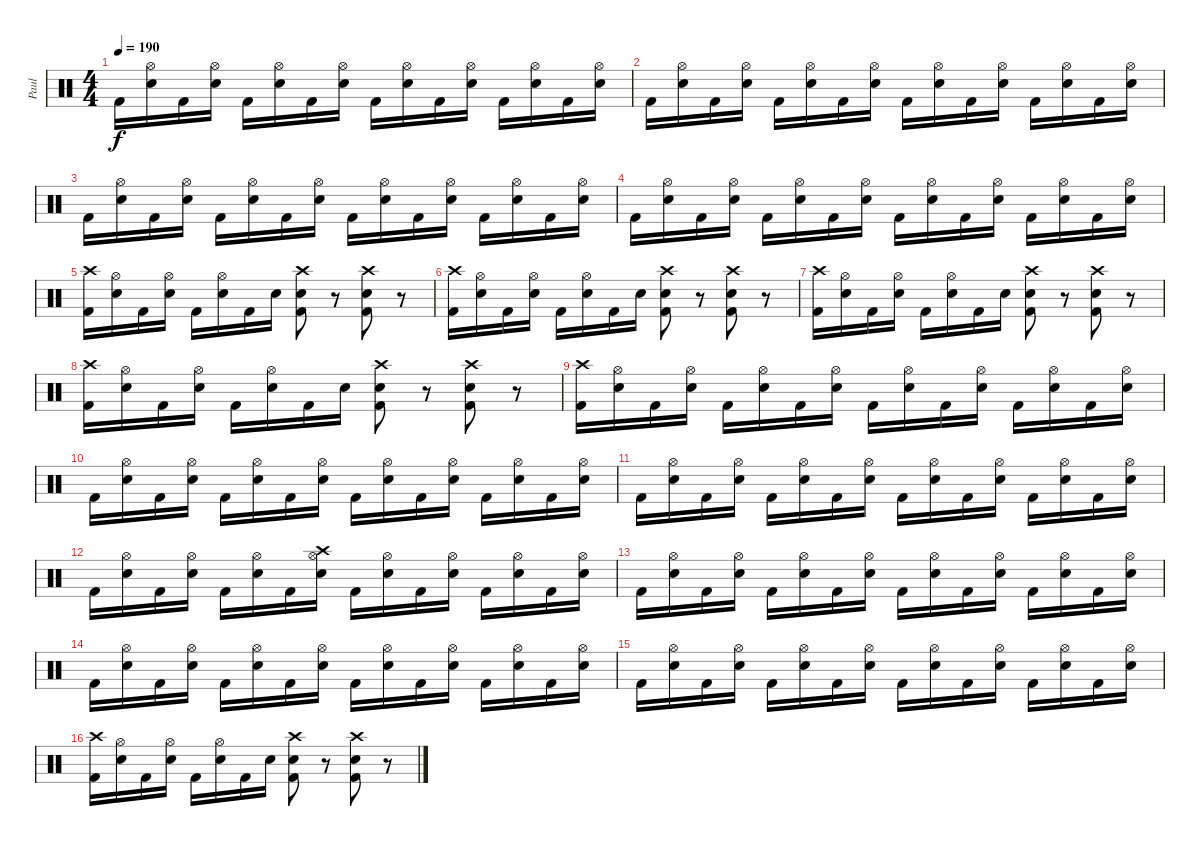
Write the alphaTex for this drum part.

\track ("Paul" "Paul") {instrument percussion}
\staff {score}
\articulation defaults
\ts (4 4)
\tempo 190
\clef neutral
\ks c "Kick (hit) 2".16{dy f}
("Hi-Hat (open)" "Snare (hit) 2").16 "Kick (hit) 2".16 ("Hi-Hat (open)" "Snare (hit) 2").16 "Kick (hit) 2".16 ("Hi-Hat (open)" "Snare (hit) 2").16 "Kick (hit) 2".16 ("Hi-Hat (open)" "Snare (hit) 2").16 "Kick (hit) 2".16 ("Hi-Hat (open)" "Snare (hit) 2").16 "Kick (hit) 2".16 ("Hi-Hat (open)" "Snare (hit) 2").16 "Kick (hit) 2".16 ("Hi-Hat (open)" "Snare (hit) 2").16 "Kick (hit) 2".16 ("Hi-Hat (open)" "Snare (hit) 2").16 |
"Kick (hit) 2".16 ("Hi-Hat (open)" "Snare (hit) 2").16 "Kick (hit) 2".16 ("Hi-Hat (open)" "Snare (hit) 2").16 "Kick (hit) 2".16 ("Hi-Hat (open)" "Snare (hit) 2").16 "Kick (hit) 2".16 ("Hi-Hat (open)" "Snare (hit) 2").16 "Kick (hit) 2".16 ("Hi-Hat (open)" "Snare (hit) 2").16 "Kick (hit) 2".16 ("Hi-Hat (open)" "Snare (hit) 2").16 "Kick (hit) 2".16 ("Hi-Hat (open)" "Snare (hit) 2").16 "Kick (hit) 2".16 ("Hi-Hat (open)" "Snare (hit) 2").16 |
"Kick (hit) 2".16 ("Hi-Hat (open)" "Snare (hit) 2").16 "Kick (hit) 2".16 ("Hi-Hat (open)" "Snare (hit) 2").16 "Kick (hit) 2".16 ("Hi-Hat (open)" "Snare (hit) 2").16 "Kick (hit) 2".16 ("Hi-Hat (open)" "Snare (hit) 2").16 "Kick (hit) 2".16 ("Hi-Hat (open)" "Snare (hit) 2").16 "Kick (hit) 2".16 ("Hi-Hat (open)" "Snare (hit) 2").16 "Kick (hit) 2".16 ("Hi-Hat (open)" "Snare (hit) 2").16 "Kick (hit) 2".16 ("Hi-Hat (open)" "Snare (hit) 2").16 |
"Kick (hit) 2".16 ("Hi-Hat (open)" "Snare (hit) 2").16 "Kick (hit) 2".16 ("Hi-Hat (open)" "Snare (hit) 2").16 "Kick (hit) 2".16 ("Hi-Hat (open)" "Snare (hit) 2").16 "Kick (hit) 2".16 ("Hi-Hat (open)" "Snare (hit) 2").16 "Kick (hit) 2".16 ("Hi-Hat (open)" "Snare (hit) 2").16 "Kick (hit) 2".16 ("Hi-Hat (open)" "Snare (hit) 2").16 "Kick (hit) 2".16 ("Hi-Hat (open)" "Snare (hit) 2").16 "Kick (hit) 2".16 ("Hi-Hat (open)" "Snare (hit) 2").16 |
("Crash high (hit)" "Kick (hit) 2").16 ("Hi-Hat (open)" "Snare (hit) 2").16 "Kick (hit) 2".16 ("Hi-Hat (open)" "Snare (hit) 2").16 "Kick (hit) 2".16 ("Hi-Hat (open)" "Snare (hit) 2").16 "Kick (hit) 2".16 "Snare (hit) 2".16 ("Crash high (hit)" "Snare (hit) 2" "Kick (hit) 2").8 r.8 ("Crash high (hit)" "Snare (hit) 2" "Kick (hit) 2").8 r.8 |
("Crash high (hit)" "Kick (hit) 2").16 ("Hi-Hat (open)" "Snare (hit) 2").16 "Kick (hit) 2".16 ("Hi-Hat (open)" "Snare (hit) 2").16 "Kick (hit) 2".16 ("Hi-Hat (open)" "Snare (hit) 2").16 "Kick (hit) 2".16 "Snare (hit) 2".16 ("Crash high (hit)" "Snare (hit) 2" "Kick (hit) 2").8 r.8 ("Crash high (hit)" "Snare (hit) 2" "Kick (hit) 2").8 r.8 |
("Crash high (hit)" "Kick (hit) 2").16 ("Hi-Hat (open)" "Snare (hit) 2").16 "Kick (hit) 2".16 ("Hi-Hat (open)" "Snare (hit) 2").16 "Kick (hit) 2".16 ("Hi-Hat (open)" "Snare (hit) 2").16 "Kick (hit) 2".16 "Snare (hit) 2".16 ("Crash high (hit)" "Snare (hit) 2" "Kick (hit) 2").8 r.8 ("Crash high (hit)" "Snare (hit) 2" "Kick (hit) 2").8 r.8 |
("Crash high (hit)" "Kick (hit) 2").16 ("Hi-Hat (open)" "Snare (hit) 2").16 "Kick (hit) 2".16 ("Hi-Hat (open)" "Snare (hit) 2").16 "Kick (hit) 2".16 ("Hi-Hat (open)" "Snare (hit) 2").16 "Kick (hit) 2".16 "Snare (hit) 2".16 ("Crash high (hit)" "Snare (hit) 2" "Kick (hit) 2").8 r.8 ("Crash high (hit)" "Snare (hit) 2" "Kick (hit) 2").8 r.8 |
("Crash high (hit)" "Kick (hit) 2").16 ("Hi-Hat (open)" "Snare (hit) 2").16 "Kick (hit) 2".16 ("Hi-Hat (open)" "Snare (hit) 2").16 "Kick (hit) 2".16 ("Hi-Hat (open)" "Snare (hit) 2").16 "Kick (hit) 2".16 ("Hi-Hat (open)" "Snare (hit) 2").16 "Kick (hit) 2".16 ("Hi-Hat (open)" "Snare (hit) 2").16 "Kick (hit) 2".16 ("Hi-Hat (open)" "Snare (hit) 2").16 "Kick (hit) 2".16 ("Hi-Hat (open)" "Snare (hit) 2").16 "Kick (hit) 2".16 ("Hi-Hat (open)" "Snare (hit) 2").16 |
"Kick (hit) 2".16 ("Hi-Hat (open)" "Snare (hit) 2").16 "Kick (hit) 2".16 ("Hi-Hat (open)" "Snare (hit) 2").16 "Kick (hit) 2".16 ("Hi-Hat (open)" "Snare (hit) 2").16 "Kick (hit) 2".16 ("Hi-Hat (open)" "Snare (hit) 2").16 "Kick (hit) 2".16 ("Hi-Hat (open)" "Snare (hit) 2").16 "Kick (hit) 2".16 ("Hi-Hat (open)" "Snare (hit) 2").16 "Kick (hit) 2".16 ("Hi-Hat (open)" "Snare (hit) 2").16 "Kick (hit) 2".16 ("Hi-Hat (open)" "Snare (hit) 2").16 |
"Kick (hit) 2".16 ("Hi-Hat (open)" "Snare (hit) 2").16 "Kick (hit) 2".16 ("Hi-Hat (open)" "Snare (hit) 2").16 "Kick (hit) 2".16 ("Hi-Hat (open)" "Snare (hit) 2").16 "Kick (hit) 2".16 ("Hi-Hat (open)" "Snare (hit) 2").16 "Kick (hit) 2".16 ("Hi-Hat (open)" "Snare (hit) 2").16 "Kick (hit) 2".16 ("Hi-Hat (open)" "Snare (hit) 2").16 "Kick (hit) 2".16 ("Hi-Hat (open)" "Snare (hit) 2").16 "Kick (hit) 2".16 ("Hi-Hat (open)" "Snare (hit) 2").16 |
"Kick (hit) 2".16 ("Hi-Hat (open)" "Snare (hit) 2").16 "Kick (hit) 2".16 ("Hi-Hat (open)" "Snare (hit) 2").16 "Kick (hit) 2".16 ("Hi-Hat (open)" "Snare (hit) 2").16 "Kick (hit) 2".16 ("Hi-Hat (open)" "Crash high (hit)" "Snare (hit) 2").16 "Kick (hit) 2".16 ("Hi-Hat (open)" "Snare (hit) 2").16 "Kick (hit) 2".16 ("Hi-Hat (open)" "Snare (hit) 2").16 "Kick (hit) 2".16 ("Hi-Hat (open)" "Snare (hit) 2").16 "Kick (hit) 2".16 ("Hi-Hat (open)" "Snare (hit) 2").16 |
"Kick (hit) 2".16 ("Hi-Hat (open)" "Snare (hit) 2").16 "Kick (hit) 2".16 ("Hi-Hat (open)" "Snare (hit) 2").16 "Kick (hit) 2".16 ("Hi-Hat (open)" "Snare (hit) 2").16 "Kick (hit) 2".16 ("Hi-Hat (open)" "Snare (hit) 2").16 "Kick (hit) 2".16 ("Hi-Hat (open)" "Snare (hit) 2").16 "Kick (hit) 2".16 ("Hi-Hat (open)" "Snare (hit) 2").16 "Kick (hit) 2".16 ("Hi-Hat (open)" "Snare (hit) 2").16 "Kick (hit) 2".16 ("Hi-Hat (open)" "Snare (hit) 2").16 |
"Kick (hit) 2".16 ("Hi-Hat (open)" "Snare (hit) 2").16 "Kick (hit) 2".16 ("Hi-Hat (open)" "Snare (hit) 2").16 "Kick (hit) 2".16 ("Hi-Hat (open)" "Snare (hit) 2").16 "Kick (hit) 2".16 ("Hi-Hat (open)" "Snare (hit) 2").16 "Kick (hit) 2".16 ("Hi-Hat (open)" "Snare (hit) 2").16 "Kick (hit) 2".16 ("Hi-Hat (open)" "Snare (hit) 2").16 "Kick (hit) 2".16 ("Hi-Hat (open)" "Snare (hit) 2").16 "Kick (hit) 2".16 ("Hi-Hat (open)" "Snare (hit) 2").16 |
"Kick (hit) 2".16 ("Hi-Hat (open)" "Snare (hit) 2").16 "Kick (hit) 2".16 ("Hi-Hat (open)" "Snare (hit) 2").16 "Kick (hit) 2".16 ("Hi-Hat (open)" "Snare (hit) 2").16 "Kick (hit) 2".16 ("Hi-Hat (open)" "Snare (hit) 2").16 "Kick (hit) 2".16 ("Hi-Hat (open)" "Snare (hit) 2").16 "Kick (hit) 2".16 ("Hi-Hat (open)" "Snare (hit) 2").16 "Kick (hit) 2".16 ("Hi-Hat (open)" "Snare (hit) 2").16 "Kick (hit) 2".16 ("Hi-Hat (open)" "Snare (hit) 2").16 |
("Crash high (hit)" "Kick (hit) 2").16 ("Hi-Hat (open)" "Snare (hit) 2").16 "Kick (hit) 2".16 ("Hi-Hat (open)" "Snare (hit) 2").16 "Kick (hit) 2".16 ("Hi-Hat (open)" "Snare (hit) 2").16 "Kick (hit) 2".16 "Snare (hit) 2".16 ("Crash high (hit)" "Snare (hit) 2" "Kick (hit) 2").8 r.8 ("Crash high (hit)" "Snare (hit) 2" "Kick (hit) 2").8 r.8
